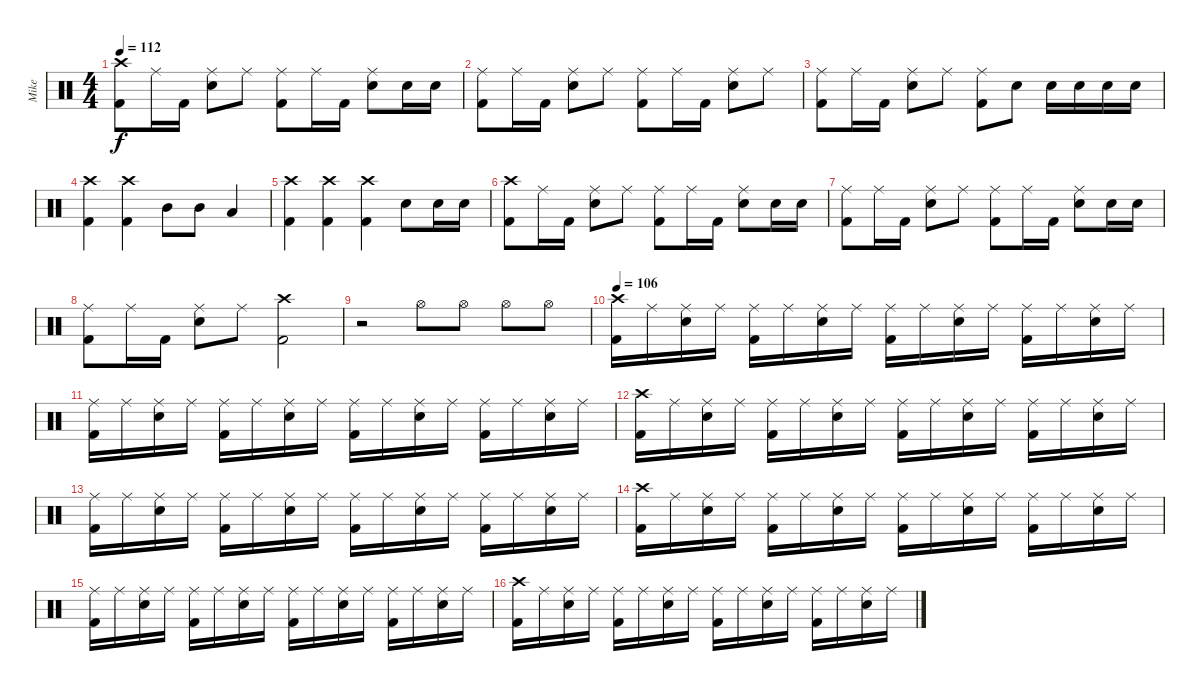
\track ("Mike" "Mike") {instrument percussion}
\staff {score}
\articulation defaults
\ts (4 4)
\tempo 112
\clef neutral
\ks c
("Crash high (hit)" "Kick (hit) 2").8{dy f} "Ride (middle)".16 "Kick (hit) 2".16 ("Ride (middle)" "Snare (hit) 2").8 "Ride (middle)".8 ("Ride (middle)" "Kick (hit) 2").8 "Ride (middle)".16 "Kick (hit) 2".16 ("Ride (middle)" "Snare (hit) 2").8 "Snare (hit) 2".16 "Snare (hit) 2".16 |
("Ride (middle)" "Kick (hit) 2").8 "Ride (middle)".16 "Kick (hit) 2".16 ("Ride (middle)" "Snare (hit) 2").8 "Ride (middle)".8 ("Ride (middle)" "Kick (hit) 2").8 "Ride (middle)".16 "Kick (hit) 2".16 ("Ride (middle)" "Snare (hit) 2").8 "Ride (middle)".8 |
("Ride (middle)" "Kick (hit) 2").8 "Ride (middle)".16 "Kick (hit) 2".16 ("Ride (middle)" "Snare (hit) 2").8 "Ride (middle)".8 ("Ride (middle)" "Kick (hit) 2").8 "Snare (hit) 2".8 "Snare (hit) 2".16 "Snare (hit) 2".16 "Snare (hit) 2".16 "Snare (hit) 2".16 |
("Crash high (hit)" "Kick (hit) 2").4 ("Crash high (hit)" "Kick (hit) 2").4 "Mid Tom (hit)".8 "Mid Tom (hit)".8 "Low Tom (hit)".4 |
("Crash high (hit)" "Kick (hit) 2").4 ("Crash high (hit)" "Kick (hit) 2").4 ("Crash high (hit)" "Kick (hit) 2").4 "Snare (hit) 2".8 "Snare (hit) 2".16 "Snare (hit) 2".16 |
("Crash high (hit)" "Kick (hit) 2").8 "Ride (middle)".16 "Kick (hit) 2".16 ("Ride (middle)" "Snare (hit) 2").8 "Ride (middle)".8 ("Ride (middle)" "Kick (hit) 2").8 "Ride (middle)".16 "Kick (hit) 2".16 ("Ride (middle)" "Snare (hit) 2").8 "Snare (hit) 2".16 "Snare (hit) 2".16 |
("Ride (middle)" "Kick (hit) 2").8 "Ride (middle)".16 "Kick (hit) 2".16 ("Ride (middle)" "Snare (hit) 2").8 "Ride (middle)".8 ("Ride (middle)" "Kick (hit) 2").8 "Ride (middle)".16 "Kick (hit) 2".16 ("Ride (middle)" "Snare (hit) 2").8 "Snare (hit) 2".16 "Snare (hit) 2".16 |
("Ride (middle)" "Kick (hit) 2").8 "Ride (middle)".16 "Kick (hit) 2".16 ("Ride (middle)" "Snare (hit) 2").8 "Ride (middle)".8 ("Crash high (hit)" "Kick (hit) 2").2 |
r.2 "Hi-Hat (open)".8 "Hi-Hat (open)".8 "Hi-Hat (open)".8 "Hi-Hat (open)".8 |
\tempo 106
("Crash high (hit)" "Kick (hit) 2").16 "Ride (middle)".16 ("Ride (middle)" "Snare (hit) 2").16 "Ride (middle)".16 ("Ride (middle)" "Kick (hit) 2").16 "Ride (middle)".16 ("Ride (middle)" "Snare (hit) 2").16 "Ride (middle)".16 ("Ride (middle)" "Kick (hit) 2").16 "Ride (middle)".16 ("Ride (middle)" "Snare (hit) 2").16 "Ride (middle)".16 ("Ride (middle)" "Kick (hit) 2").16 "Ride (middle)".16 ("Ride (middle)" "Snare (hit) 2").16 "Ride (middle)".16 |
("Ride (middle)" "Kick (hit) 2").16 "Ride (middle)".16 ("Ride (middle)" "Snare (hit) 2").16 "Ride (middle)".16 ("Ride (middle)" "Kick (hit) 2").16 "Ride (middle)".16 ("Ride (middle)" "Snare (hit) 2").16 "Ride (middle)".16 ("Ride (middle)" "Kick (hit) 2").16 "Ride (middle)".16 ("Ride (middle)" "Snare (hit) 2").16 "Ride (middle)".16 ("Ride (middle)" "Kick (hit) 2").16 "Ride (middle)".16 ("Ride (middle)" "Snare (hit) 2").16 "Ride (middle)".16 |
("Crash high (hit)" "Kick (hit) 2").16 "Ride (middle)".16 ("Ride (middle)" "Snare (hit) 2").16 "Ride (middle)".16 ("Ride (middle)" "Kick (hit) 2").16 "Ride (middle)".16 ("Ride (middle)" "Snare (hit) 2").16 "Ride (middle)".16 ("Ride (middle)" "Kick (hit) 2").16 "Ride (middle)".16 ("Ride (middle)" "Snare (hit) 2").16 "Ride (middle)".16 ("Ride (middle)" "Kick (hit) 2").16 "Ride (middle)".16 ("Ride (middle)" "Snare (hit) 2").16 "Ride (middle)".16 |
("Ride (middle)" "Kick (hit) 2").16 "Ride (middle)".16 ("Ride (middle)" "Snare (hit) 2").16 "Ride (middle)".16 ("Ride (middle)" "Kick (hit) 2").16 "Ride (middle)".16 ("Ride (middle)" "Snare (hit) 2").16 "Ride (middle)".16 ("Ride (middle)" "Kick (hit) 2").16 "Ride (middle)".16 ("Ride (middle)" "Snare (hit) 2").16 "Ride (middle)".16 ("Ride (middle)" "Kick (hit) 2").16 "Ride (middle)".16 ("Ride (middle)" "Snare (hit) 2").16 "Ride (middle)".16 |
("Crash high (hit)" "Kick (hit) 2").16 "Ride (middle)".16 ("Ride (middle)" "Snare (hit) 2").16 "Ride (middle)".16 ("Ride (middle)" "Kick (hit) 2").16 "Ride (middle)".16 ("Ride (middle)" "Snare (hit) 2").16 "Ride (middle)".16 ("Ride (middle)" "Kick (hit) 2").16 "Ride (middle)".16 ("Ride (middle)" "Snare (hit) 2").16 "Ride (middle)".16 ("Ride (middle)" "Kick (hit) 2").16 "Ride (middle)".16 ("Ride (middle)" "Snare (hit) 2").16 "Ride (middle)".16 |
("Ride (middle)" "Kick (hit) 2").16 "Ride (middle)".16 ("Ride (middle)" "Snare (hit) 2").16 "Ride (middle)".16 ("Ride (middle)" "Kick (hit) 2").16 "Ride (middle)".16 ("Ride (middle)" "Snare (hit) 2").16 "Ride (middle)".16 ("Ride (middle)" "Kick (hit) 2").16 "Ride (middle)".16 ("Ride (middle)" "Snare (hit) 2").16 "Ride (middle)".16 ("Ride (middle)" "Kick (hit) 2").16 "Ride (middle)".16 ("Ride (middle)" "Snare (hit) 2").16 "Ride (middle)".16 |
("Crash high (hit)" "Kick (hit) 2").16 "Ride (middle)".16 ("Ride (middle)" "Snare (hit) 2").16 "Ride (middle)".16 ("Ride (middle)" "Kick (hit) 2").16 "Ride (middle)".16 ("Ride (middle)" "Snare (hit) 2").16 "Ride (middle)".16 ("Ride (middle)" "Kick (hit) 2").16 "Ride (middle)".16 ("Ride (middle)" "Snare (hit) 2").16 "Ride (middle)".16 ("Ride (middle)" "Kick (hit) 2").16 "Ride (middle)".16 ("Ride (middle)" "Snare (hit) 2").16 "Ride (middle)".16
